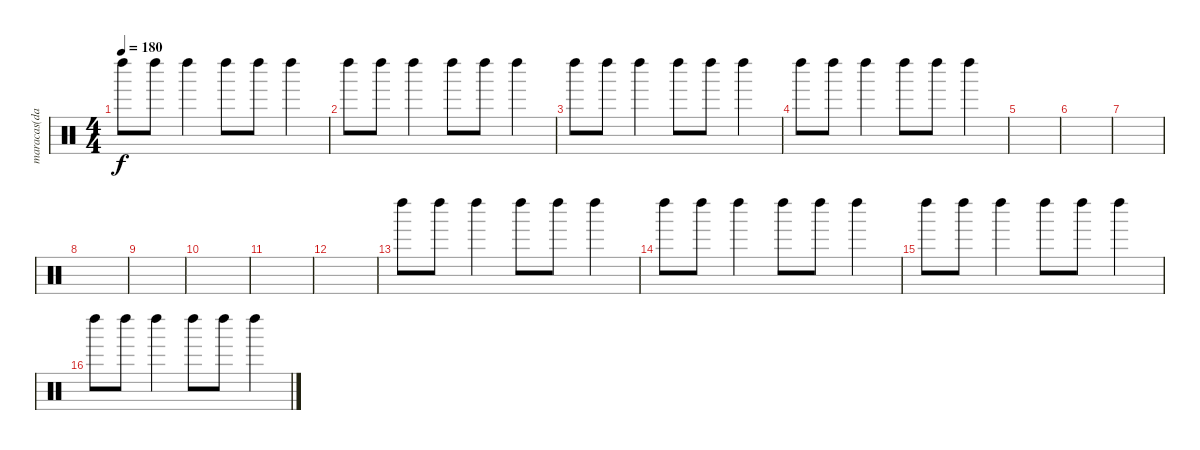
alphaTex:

\track ("maracas(dave)" "maracas(da") {instrument percussion}
\staff {score}
\articulation defaults
\ts (4 4)
\tempo 180
\clef neutral
\ks c "Left Maraca (hit)".8{dy f} "Left Maraca (hit)".8 "Left Maraca (hit)".4 "Left Maraca (hit)".8 "Left Maraca (hit)".8 "Left Maraca (hit)".4
|
"Left Maraca (hit)".8 "Left Maraca (hit)".8 "Left Maraca (hit)".4 "Left Maraca (hit)".8 "Left Maraca (hit)".8 "Left Maraca (hit)".4 |
"Left Maraca (hit)".8 "Left Maraca (hit)".8 "Left Maraca (hit)".4 "Left Maraca (hit)".8 "Left Maraca (hit)".8 "Left Maraca (hit)".4 |
"Left Maraca (hit)".8 "Left Maraca (hit)".8 "Left Maraca (hit)".4 "Left Maraca (hit)".8 "Left Maraca (hit)".8 "Left Maraca (hit)".4 |
|
|
|
|
|
|
|
|
"Left Maraca (hit)".8 "Left Maraca (hit)".8 "Left Maraca (hit)".4 "Left Maraca (hit)".8 "Left Maraca (hit)".8 "Left Maraca (hit)".4 |
"Left Maraca (hit)".8 "Left Maraca (hit)".8 "Left Maraca (hit)".4 "Left Maraca (hit)".8 "Left Maraca (hit)".8 "Left Maraca (hit)".4 |
"Left Maraca (hit)".8 "Left Maraca (hit)".8 "Left Maraca (hit)".4 "Left Maraca (hit)".8 "Left Maraca (hit)".8 "Left Maraca (hit)".4 |
"Left Maraca (hit)".8 "Left Maraca (hit)".8 "Left Maraca (hit)".4 "Left Maraca (hit)".8 "Left Maraca (hit)".8 "Left Maraca (hit)".4
